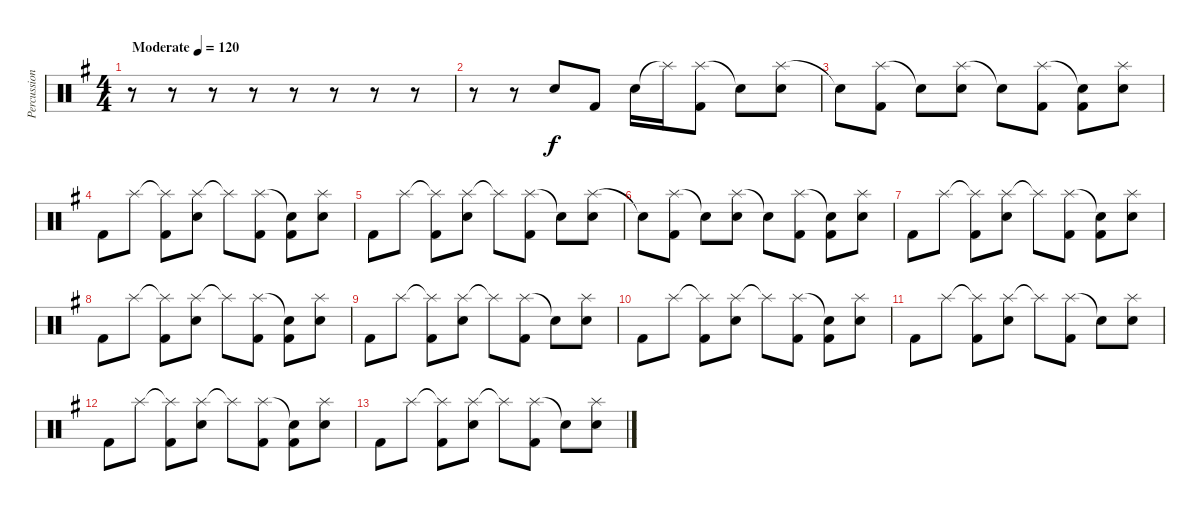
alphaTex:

\track ("Percussion" "Percussion") {instrument percussion}
\staff {score}
\articulation defaults
\ts (4 4)
\tempo (120 "Moderate")
\clef neutral
\ks g
r.8{dy f} r.8 r.8 r.8 r.8 r.8 r.8 r.8 |
r.8 r.8 "Electric Snare (hit)".8 "Kick (hit) 2".8 "Electric Snare (hit)".16 "Splash (hit)"{t}.16 ("Splash (hit)" "Kick (hit) 2").8 "Snare (hit)"{t}.8 ("Splash (hit)" "Electric Snare (hit)").8 |
"Snare (hit)"{t}.8 ("Splash (hit)" "Kick (hit) 2").8 "Snare (hit)"{t}.8 ("Splash (hit)" "Electric Snare (hit)").8 "Snare (hit)"{t}.8 ("Splash (hit)" "Kick (hit) 2").8 ("Snare (hit)"{t} "Kick (hit) 2").8 ("Splash (hit)" "Electric Snare (hit)").8 |
"Kick (hit) 2".8 "Splash (hit)".8 ("Splash (hit)"{t} "Kick (hit) 2").8 ("Splash (hit)" "Electric Snare (hit)").8 "Splash (hit)"{t}.8 ("Splash (hit)" "Kick (hit) 2").8 ("Snare (hit)"{t} "Kick (hit) 2").8 ("Splash (hit)" "Electric Snare (hit)").8 |
"Kick (hit) 2".8 "Splash (hit)".8 ("Splash (hit)"{t} "Kick (hit) 2").8 ("Splash (hit)" "Electric Snare (hit)").8 "Splash (hit)"{t}.8 ("Splash (hit)" "Kick (hit) 2").8 "Snare (hit)"{t}.8 ("Splash (hit)" "Electric Snare (hit)").8 |
"Snare (hit)"{t}.8 ("Splash (hit)" "Kick (hit) 2").8 "Snare (hit)"{t}.8 ("Splash (hit)" "Electric Snare (hit)").8 "Snare (hit)"{t}.8 ("Splash (hit)" "Kick (hit) 2").8 ("Snare (hit)"{t} "Kick (hit) 2").8 ("Splash (hit)" "Electric Snare (hit)").8 |
"Kick (hit) 2".8 "Splash (hit)".8 ("Splash (hit)"{t} "Kick (hit) 2").8 ("Splash (hit)" "Electric Snare (hit)").8 "Splash (hit)"{t}.8 ("Splash (hit)" "Kick (hit) 2").8 ("Snare (hit)"{t} "Kick (hit) 2").8 ("Splash (hit)" "Electric Snare (hit)").8 |
"Kick (hit) 2".8 "Splash (hit)".8 ("Splash (hit)"{t} "Kick (hit) 2").8 ("Splash (hit)" "Electric Snare (hit)").8 "Splash (hit)"{t}.8 ("Splash (hit)" "Kick (hit) 2").8 ("Snare (hit)"{t} "Kick (hit) 2").8 ("Splash (hit)" "Electric Snare (hit)").8 |
"Kick (hit) 2".8 "Splash (hit)".8 ("Splash (hit)"{t} "Kick (hit) 2").8 ("Splash (hit)" "Electric Snare (hit)").8 "Splash (hit)"{t}.8 ("Splash (hit)" "Kick (hit) 2").8 "Snare (hit)"{t}.8 ("Splash (hit)" "Electric Snare (hit)").8 |
"Kick (hit) 2".8 "Splash (hit)".8 ("Splash (hit)"{t} "Kick (hit) 2").8 ("Splash (hit)" "Electric Snare (hit)").8 "Splash (hit)"{t}.8 ("Splash (hit)" "Kick (hit) 2").8 ("Snare (hit)"{t} "Kick (hit) 2").8 ("Splash (hit)" "Electric Snare (hit)").8 |
"Kick (hit) 2".8 "Splash (hit)".8 ("Splash (hit)"{t} "Kick (hit) 2").8 ("Splash (hit)" "Electric Snare (hit)").8 "Splash (hit)"{t}.8 ("Splash (hit)" "Kick (hit) 2").8 "Snare (hit)"{t}.8 ("Splash (hit)" "Electric Snare (hit)").8 |
"Kick (hit) 2".8 "Splash (hit)".8 ("Splash (hit)"{t} "Kick (hit) 2").8 ("Splash (hit)" "Electric Snare (hit)").8 "Splash (hit)"{t}.8 ("Splash (hit)" "Kick (hit) 2").8 ("Snare (hit)"{t} "Kick (hit) 2").8 ("Splash (hit)" "Electric Snare (hit)").8 |
"Kick (hit) 2".8 "Splash (hit)".8 ("Splash (hit)"{t} "Kick (hit) 2").8 ("Splash (hit)" "Electric Snare (hit)").8 "Splash (hit)"{t}.8 ("Splash (hit)" "Kick (hit) 2").8 "Snare (hit)"{t}.8 ("Splash (hit)" "Electric Snare (hit)").8
